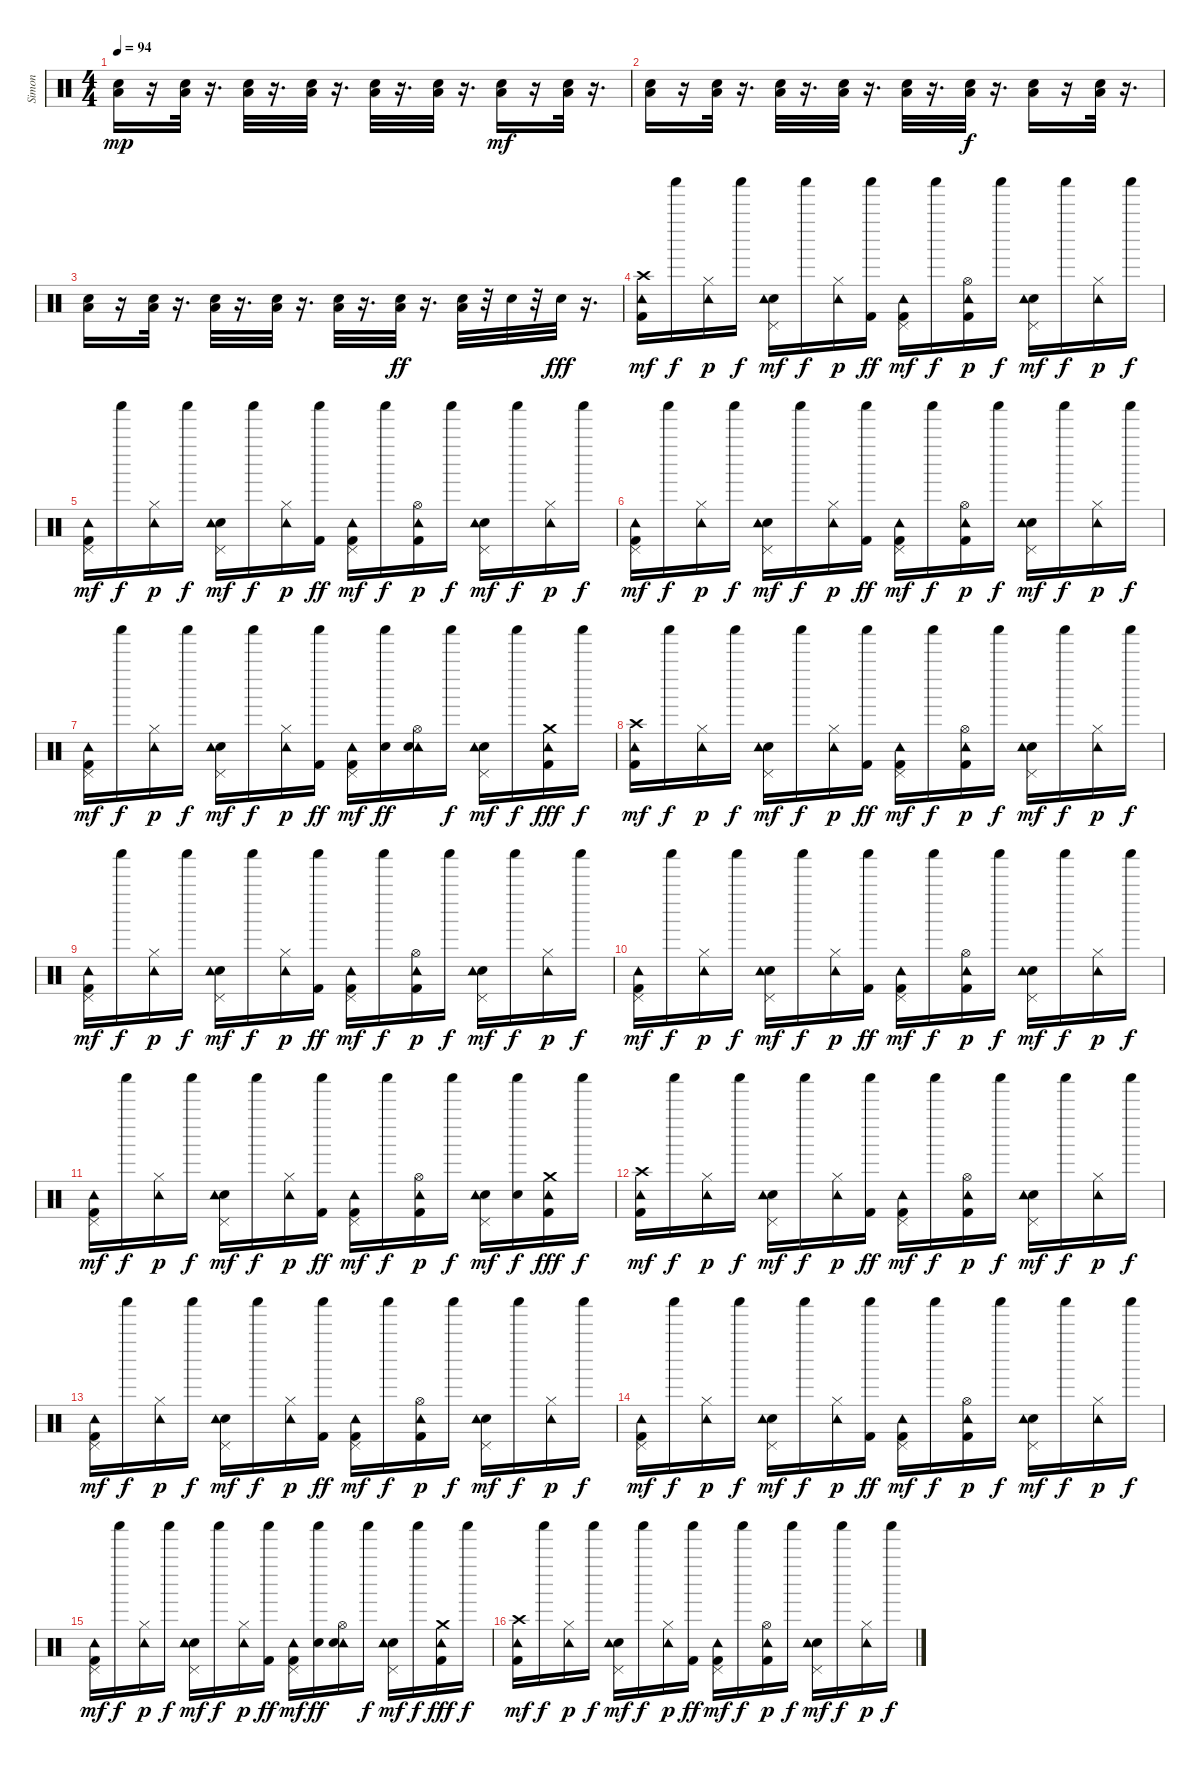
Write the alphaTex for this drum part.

\track ("Simon" "Simon") {instrument percussion}
\staff {score}
\articulation defaults
\ts (4 4)
\tempo 94
\clef neutral
\ks c
("Electric Snare (hit)" "Low Tom (hit)").16{dy mp} r.16 ("Electric Snare (hit)" "Low Tom (hit)").32 r.16{d} ("Electric Snare (hit)" "Low Tom (hit)").32 r.16{d} ("Electric Snare (hit)" "Low Tom (hit)").32 r.16{d} ("Electric Snare (hit)" "Low Tom (hit)").32 r.16{d} ("Electric Snare (hit)" "Low Tom (hit)").32 r.16{d} ("Electric Snare (hit)" "Low Tom (hit)").16{dy mf} r.16 ("Electric Snare (hit)" "Low Tom (hit)").32 r.16{d} |
("Electric Snare (hit)" "Low Tom (hit)").16 r.16 ("Electric Snare (hit)" "Low Tom (hit)").32 r.16{d} ("Electric Snare (hit)" "Low Tom (hit)").32 r.16{d} ("Electric Snare (hit)" "Low Tom (hit)").32 r.16{d} ("Electric Snare (hit)" "Low Tom (hit)").32 r.16{d} ("Electric Snare (hit)" "Low Tom (hit)").32{dy f} r.16{d} ("Electric Snare (hit)" "Low Tom (hit)").16 r.16 ("Electric Snare (hit)" "Low Tom (hit)").32 r.16{d} |
("Electric Snare (hit)" "Low Tom (hit)").16 r.16 ("Electric Snare (hit)" "Low Tom (hit)").32 r.16{d} ("Electric Snare (hit)" "Low Tom (hit)").32 r.16{d} ("Electric Snare (hit)" "Low Tom (hit)").32 r.16{d} ("Electric Snare (hit)" "Low Tom (hit)").32 r.16{d} ("Electric Snare (hit)" "Low Tom (hit)").32{dy ff} r.16{d} ("Snare (hit) 2" "Low Tom (hit)").32 r.32 "Snare (hit) 2".32 r.32 "Snare (hit) 2".32{dy fff} r.16{d} |
("Kick (hit) 2" "Crash high (hit)" "Tambourine (hit)").16{dy mf} "Shaker (hit)".16{dy f} ("Hi-Hat (closed)" "Tambourine (hit)").16{dy p} "Shaker (hit)".16{dy f} ("Snare (hit) 2" "Pedal Hi-Hat (hit)" "Tambourine (hit)").16{dy mf} "Shaker (hit)".16{dy f} ("Hi-Hat (closed)" "Tambourine (hit)").16{dy p} ("Shaker (hit)" "Kick (hit) 2").16{dy ff} ("Kick (hit) 2" "Pedal Hi-Hat (hit)" "Tambourine (hit)").16{dy mf} "Shaker (hit)".16{dy f} ("Kick (hit) 2" "Hi-Hat (open)" "Tambourine (hit)").16{dy p} "Shaker (hit)".16{dy f} ("Snare (hit) 2" "Pedal Hi-Hat (hit)" "Tambourine (hit)").16{dy mf} "Shaker (hit)".16{dy f} ("Hi-Hat (closed)" "Tambourine (hit)").16{dy p} "Shaker (hit)".16{dy f} |
("Kick (hit) 2" "Pedal Hi-Hat (hit)" "Tambourine (hit)").16{dy mf} "Shaker (hit)".16{dy f} ("Hi-Hat (closed)" "Tambourine (hit)").16{dy p} "Shaker (hit)".16{dy f} ("Snare (hit) 2" "Pedal Hi-Hat (hit)" "Tambourine (hit)").16{dy mf} "Shaker (hit)".16{dy f} ("Hi-Hat (closed)" "Tambourine (hit)").16{dy p} ("Shaker (hit)" "Kick (hit) 2").16{dy ff} ("Kick (hit) 2" "Pedal Hi-Hat (hit)" "Tambourine (hit)").16{dy mf} "Shaker (hit)".16{dy f} ("Kick (hit) 2" "Hi-Hat (open)" "Tambourine (hit)").16{dy p} "Shaker (hit)".16{dy f} ("Snare (hit) 2" "Pedal Hi-Hat (hit)" "Tambourine (hit)").16{dy mf} "Shaker (hit)".16{dy f} ("Hi-Hat (closed)" "Tambourine (hit)").16{dy p} "Shaker (hit)".16{dy f} |
("Kick (hit) 2" "Tambourine (hit)" "Pedal Hi-Hat (hit)").16{dy mf} "Shaker (hit)".16{dy f} ("Hi-Hat (closed)" "Tambourine (hit)").16{dy p} "Shaker (hit)".16{dy f} ("Snare (hit) 2" "Pedal Hi-Hat (hit)" "Tambourine (hit)").16{dy mf} "Shaker (hit)".16{dy f} ("Hi-Hat (closed)" "Tambourine (hit)").16{dy p} ("Shaker (hit)" "Kick (hit) 2").16{dy ff} ("Kick (hit) 2" "Pedal Hi-Hat (hit)" "Tambourine (hit)").16{dy mf} "Shaker (hit)".16{dy f} ("Kick (hit) 2" "Hi-Hat (open)" "Tambourine (hit)").16{dy p} "Shaker (hit)".16{dy f} ("Snare (hit) 2" "Pedal Hi-Hat (hit)" "Tambourine (hit)").16{dy mf} "Shaker (hit)".16{dy f} ("Hi-Hat (closed)" "Tambourine (hit)").16{dy p} "Shaker (hit)".16{dy f} |
("Kick (hit) 2" "Pedal Hi-Hat (hit)" "Tambourine (hit)").16{dy mf} "Shaker (hit)".16{dy f} ("Hi-Hat (closed)" "Tambourine (hit)").16{dy p} "Shaker (hit)".16{dy f} ("Snare (hit) 2" "Pedal Hi-Hat (hit)" "Tambourine (hit)").16{dy mf} "Shaker (hit)".16{dy f} ("Hi-Hat (closed)" "Tambourine (hit)").16{dy p} ("Shaker (hit)" "Kick (hit) 2").16{dy ff} ("Kick (hit) 2" "Pedal Hi-Hat (hit)" "Tambourine (hit)").16{dy mf} ("Shaker (hit)" "Snare (hit) 2").16{dy ff} ("Hi-Hat (open)" "Tambourine (hit)" "Snare (hit) 2").16 "Shaker (hit)".16{dy f} ("Snare (hit) 2" "Pedal Hi-Hat (hit)" "Tambourine (hit)").16{dy mf} "Shaker (hit)".16{dy f} ("Tambourine (hit)" "Crash medium (hit)" "Kick (hit) 2").16{dy fff} "Shaker (hit)".16{dy f} |
("Kick (hit) 2" "Crash high (hit)" "Tambourine (hit)").16{dy mf} "Shaker (hit)".16{dy f} ("Hi-Hat (closed)" "Tambourine (hit)").16{dy p} "Shaker (hit)".16{dy f} ("Snare (hit) 2" "Pedal Hi-Hat (hit)" "Tambourine (hit)").16{dy mf} "Shaker (hit)".16{dy f} ("Hi-Hat (closed)" "Tambourine (hit)").16{dy p} ("Shaker (hit)" "Kick (hit) 2").16{dy ff} ("Kick (hit) 2" "Pedal Hi-Hat (hit)" "Tambourine (hit)").16{dy mf} "Shaker (hit)".16{dy f} ("Kick (hit) 2" "Hi-Hat (open)" "Tambourine (hit)").16{dy p} "Shaker (hit)".16{dy f} ("Snare (hit) 2" "Pedal Hi-Hat (hit)" "Tambourine (hit)").16{dy mf} "Shaker (hit)".16{dy f} ("Hi-Hat (closed)" "Tambourine (hit)").16{dy p} "Shaker (hit)".16{dy f} |
("Kick (hit) 2" "Pedal Hi-Hat (hit)" "Tambourine (hit)").16{dy mf} "Shaker (hit)".16{dy f} ("Hi-Hat (closed)" "Tambourine (hit)").16{dy p} "Shaker (hit)".16{dy f} ("Snare (hit) 2" "Pedal Hi-Hat (hit)" "Tambourine (hit)").16{dy mf} "Shaker (hit)".16{dy f} ("Hi-Hat (closed)" "Tambourine (hit)").16{dy p} ("Shaker (hit)" "Kick (hit) 2").16{dy ff} ("Kick (hit) 2" "Pedal Hi-Hat (hit)" "Tambourine (hit)").16{dy mf} "Shaker (hit)".16{dy f} ("Kick (hit) 2" "Hi-Hat (open)" "Tambourine (hit)").16{dy p} "Shaker (hit)".16{dy f} ("Snare (hit) 2" "Pedal Hi-Hat (hit)" "Tambourine (hit)").16{dy mf} "Shaker (hit)".16{dy f} ("Hi-Hat (closed)" "Tambourine (hit)").16{dy p} "Shaker (hit)".16{dy f} |
("Kick (hit) 2" "Tambourine (hit)" "Pedal Hi-Hat (hit)").16{dy mf} "Shaker (hit)".16{dy f} ("Hi-Hat (closed)" "Tambourine (hit)").16{dy p} "Shaker (hit)".16{dy f} ("Snare (hit) 2" "Pedal Hi-Hat (hit)" "Tambourine (hit)").16{dy mf} "Shaker (hit)".16{dy f} ("Hi-Hat (closed)" "Tambourine (hit)").16{dy p} ("Shaker (hit)" "Kick (hit) 2").16{dy ff} ("Kick (hit) 2" "Pedal Hi-Hat (hit)" "Tambourine (hit)").16{dy mf} "Shaker (hit)".16{dy f} ("Kick (hit) 2" "Hi-Hat (open)" "Tambourine (hit)").16{dy p} "Shaker (hit)".16{dy f} ("Snare (hit) 2" "Pedal Hi-Hat (hit)" "Tambourine (hit)").16{dy mf} "Shaker (hit)".16{dy f} ("Hi-Hat (closed)" "Tambourine (hit)").16{dy p} "Shaker (hit)".16{dy f} |
("Kick (hit) 2" "Pedal Hi-Hat (hit)" "Tambourine (hit)").16{dy mf} "Shaker (hit)".16{dy f} ("Hi-Hat (closed)" "Tambourine (hit)").16{dy p} "Shaker (hit)".16{dy f} ("Snare (hit) 2" "Pedal Hi-Hat (hit)" "Tambourine (hit)").16{dy mf} "Shaker (hit)".16{dy f} ("Hi-Hat (closed)" "Tambourine (hit)").16{dy p} ("Shaker (hit)" "Kick (hit) 2").16{dy ff} ("Kick (hit) 2" "Pedal Hi-Hat (hit)" "Tambourine (hit)").16{dy mf} "Shaker (hit)".16{dy f} ("Kick (hit) 2" "Hi-Hat (open)" "Tambourine (hit)").16{dy p} "Shaker (hit)".16{dy f} ("Snare (hit) 2" "Pedal Hi-Hat (hit)" "Tambourine (hit)").16{dy mf} ("Shaker (hit)" "Snare (hit) 2").16{dy f} ("Tambourine (hit)" "Crash medium (hit)" "Kick (hit) 2").16{dy fff} "Shaker (hit)".16{dy f} |
("Kick (hit) 2" "Crash high (hit)" "Tambourine (hit)").16{dy mf} "Shaker (hit)".16{dy f} ("Hi-Hat (closed)" "Tambourine (hit)").16{dy p} "Shaker (hit)".16{dy f} ("Snare (hit) 2" "Pedal Hi-Hat (hit)" "Tambourine (hit)").16{dy mf} "Shaker (hit)".16{dy f} ("Hi-Hat (closed)" "Tambourine (hit)").16{dy p} ("Shaker (hit)" "Kick (hit) 2").16{dy ff} ("Kick (hit) 2" "Pedal Hi-Hat (hit)" "Tambourine (hit)").16{dy mf} "Shaker (hit)".16{dy f} ("Kick (hit) 2" "Hi-Hat (open)" "Tambourine (hit)").16{dy p} "Shaker (hit)".16{dy f} ("Snare (hit) 2" "Pedal Hi-Hat (hit)" "Tambourine (hit)").16{dy mf} "Shaker (hit)".16{dy f} ("Hi-Hat (closed)" "Tambourine (hit)").16{dy p} "Shaker (hit)".16{dy f} |
("Kick (hit) 2" "Pedal Hi-Hat (hit)" "Tambourine (hit)").16{dy mf} "Shaker (hit)".16{dy f} ("Hi-Hat (closed)" "Tambourine (hit)").16{dy p} "Shaker (hit)".16{dy f} ("Snare (hit) 2" "Pedal Hi-Hat (hit)" "Tambourine (hit)").16{dy mf} "Shaker (hit)".16{dy f} ("Hi-Hat (closed)" "Tambourine (hit)").16{dy p} ("Shaker (hit)" "Kick (hit) 2").16{dy ff} ("Kick (hit) 2" "Pedal Hi-Hat (hit)" "Tambourine (hit)").16{dy mf} "Shaker (hit)".16{dy f} ("Kick (hit) 2" "Hi-Hat (open)" "Tambourine (hit)").16{dy p} "Shaker (hit)".16{dy f} ("Snare (hit) 2" "Pedal Hi-Hat (hit)" "Tambourine (hit)").16{dy mf} "Shaker (hit)".16{dy f} ("Hi-Hat (closed)" "Tambourine (hit)").16{dy p} "Shaker (hit)".16{dy f} |
("Kick (hit) 2" "Tambourine (hit)" "Pedal Hi-Hat (hit)").16{dy mf} "Shaker (hit)".16{dy f} ("Hi-Hat (closed)" "Tambourine (hit)").16{dy p} "Shaker (hit)".16{dy f} ("Snare (hit) 2" "Pedal Hi-Hat (hit)" "Tambourine (hit)").16{dy mf} "Shaker (hit)".16{dy f} ("Hi-Hat (closed)" "Tambourine (hit)").16{dy p} ("Shaker (hit)" "Kick (hit) 2").16{dy ff} ("Kick (hit) 2" "Pedal Hi-Hat (hit)" "Tambourine (hit)").16{dy mf} "Shaker (hit)".16{dy f} ("Kick (hit) 2" "Hi-Hat (open)" "Tambourine (hit)").16{dy p} "Shaker (hit)".16{dy f} ("Snare (hit) 2" "Pedal Hi-Hat (hit)" "Tambourine (hit)").16{dy mf} "Shaker (hit)".16{dy f} ("Hi-Hat (closed)" "Tambourine (hit)").16{dy p} "Shaker (hit)".16{dy f} |
("Kick (hit) 2" "Pedal Hi-Hat (hit)" "Tambourine (hit)").16{dy mf} "Shaker (hit)".16{dy f} ("Hi-Hat (closed)" "Tambourine (hit)").16{dy p} "Shaker (hit)".16{dy f} ("Snare (hit) 2" "Pedal Hi-Hat (hit)" "Tambourine (hit)").16{dy mf} "Shaker (hit)".16{dy f} ("Hi-Hat (closed)" "Tambourine (hit)").16{dy p} ("Shaker (hit)" "Kick (hit) 2").16{dy ff} ("Kick (hit) 2" "Pedal Hi-Hat (hit)" "Tambourine (hit)").16{dy mf} ("Shaker (hit)" "Snare (hit) 2").16{dy ff} ("Hi-Hat (open)" "Tambourine (hit)" "Snare (hit) 2").16 "Shaker (hit)".16{dy f} ("Snare (hit) 2" "Pedal Hi-Hat (hit)" "Tambourine (hit)").16{dy mf} "Shaker (hit)".16{dy f} ("Tambourine (hit)" "Crash medium (hit)" "Kick (hit) 2").16{dy fff} "Shaker (hit)".16{dy f} |
("Kick (hit) 2" "Crash high (hit)" "Tambourine (hit)").16{dy mf} "Shaker (hit)".16{dy f} ("Hi-Hat (closed)" "Tambourine (hit)").16{dy p} "Shaker (hit)".16{dy f} ("Snare (hit) 2" "Pedal Hi-Hat (hit)" "Tambourine (hit)").16{dy mf} "Shaker (hit)".16{dy f} ("Hi-Hat (closed)" "Tambourine (hit)").16{dy p} ("Shaker (hit)" "Kick (hit) 2").16{dy ff} ("Kick (hit) 2" "Pedal Hi-Hat (hit)" "Tambourine (hit)").16{dy mf} "Shaker (hit)".16{dy f} ("Kick (hit) 2" "Hi-Hat (open)" "Tambourine (hit)").16{dy p} "Shaker (hit)".16{dy f} ("Snare (hit) 2" "Pedal Hi-Hat (hit)" "Tambourine (hit)").16{dy mf} "Shaker (hit)".16{dy f} ("Hi-Hat (closed)" "Tambourine (hit)").16{dy p} "Shaker (hit)".16{dy f}
